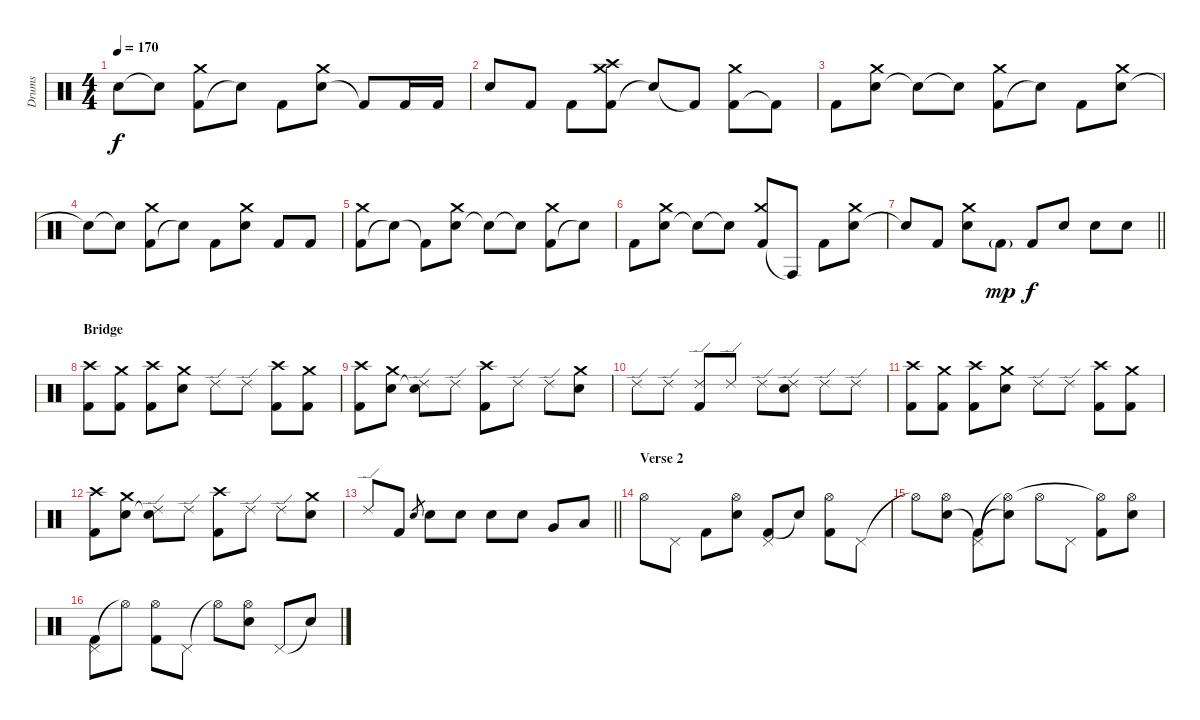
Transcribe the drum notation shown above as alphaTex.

\track ("Drums" "Drums") {instrument percussion}
\staff {score}
\articulation defaults
\ts (4 4)
\tempo 170
\clef neutral
\ks c "Snare (hit)"{t}.8{dy f} "Snare (hit)"{t}.8
("Kick (hit) 2" "Crash medium (hit)").8 "Snare (hit)"{t}.8 "Kick (hit) 2".8 ("Electric Snare (hit)" "Crash medium (hit)").8 "Kick (hit) 2"{t}.8 "Kick (hit) 2".16 "Kick (hit) 2".16 |
"Electric Snare (hit)".8 "Kick (hit) 2".8 "Kick (hit) 2".8 ("Kick (hit) 2" "Crash medium (hit)" "Crash high (hit)").8 "Snare (hit)"{t}.8 "Kick (hit) 2"{t}.8 ("Kick (hit) 2" "Crash medium (hit)").8 "Kick (hit) 2"{t}.8 |
"Kick (hit) 2".8 ("Electric Snare (hit)" "Crash medium (hit)").8 "Snare (hit)"{t}.8 "Snare (hit)"{t}.8 ("Kick (hit) 2" "Crash medium (hit)").8 "Snare (hit)"{t}.8 "Kick (hit) 2".8 ("Electric Snare (hit)" "Crash medium (hit)").8 |
"Snare (hit)"{t}.8 "Snare (hit)"{t}.8 ("Kick (hit) 2" "Crash medium (hit)").8 "Electric Snare (hit)"{t}.8 "Kick (hit) 2".8 ("Electric Snare (hit)" "Crash medium (hit)").8 "Kick (hit) 2".8 "Kick (hit) 2".8 |
("Kick (hit) 2" "Crash medium (hit)").8 "Snare (hit)"{t}.8 "Kick (hit) 2"{t}.8 ("Electric Snare (hit)" "Crash medium (hit)").8 "Snare (hit)"{t}.8 "Snare (hit)"{t}.8 ("Kick (hit) 2" "Crash medium (hit)").8 "Snare (hit)"{t}.8 |
"Kick (hit) 2".8 ("Electric Snare (hit)" "Crash medium (hit)").8 "Snare (hit)"{t}.8 "Snare (hit)"{t}.8 ("Kick (hit) 2" "Crash medium (hit)").8 "Conga high (hit)"{t}.8 "Kick (hit) 2".8 ("Electric Snare (hit)" "Crash medium (hit)").8 |
\barLineRight lightlight "Snare (hit)"{t}.8 "Kick (hit) 2".8
("Electric Snare (hit)" "Crash medium (hit)").8 "Kick (hit) 2"{g}.8{dy mp} "Kick (hit) 2".8{dy f} "Electric Snare (hit)".8 "Electric Snare (hit)".8 "Electric Snare (hit)".8 |
\section ("" "Bridge")
("Kick (hit) 2" "Crash high (hit)").8 ("Kick (hit) 2" "Crash medium (hit)").8 ("Kick (hit) 2" "Crash high (hit)").8 ("Electric Snare (hit)" "Crash medium (hit)").8 "Ride (edge) 2".8 "Ride (edge) 2".8 ("Kick (hit) 2" "Crash high (hit)").8 ("Kick (hit) 2" "Crash medium (hit)").8 |
("Kick (hit) 2" "Crash high (hit)").8 ("Electric Snare (hit)" "Crash medium (hit)").8 ("Snare (hit)"{t} "Ride (edge) 2").8 "Ride (edge) 2".8 ("Kick (hit) 2" "Crash high (hit)").8 "Ride (edge) 2".8 "Ride (edge) 2".8 ("Electric Snare (hit)" "Crash medium (hit)").8 |
"Ride (edge) 2".8 "Ride (edge) 2".8 ("Kick (hit) 2" "Ride (edge) 2").8 "Ride (edge) 2".8 "Ride (edge) 2".8 ("Electric Snare (hit)" "Ride (edge) 2").8 "Ride (edge) 2".8 "Ride (edge) 2".8 |
("Kick (hit) 2" "Crash high (hit)").8 ("Kick (hit) 2" "Crash medium (hit)").8 ("Kick (hit) 2" "Crash high (hit)").8 ("Electric Snare (hit)" "Crash medium (hit)").8 "Ride (edge) 2".8 "Ride (edge) 2".8 ("Kick (hit) 2" "Crash high (hit)").8 ("Kick (hit) 2" "Crash medium (hit)").8 |
("Kick (hit) 2" "Crash high (hit)").8 ("Electric Snare (hit)" "Crash medium (hit)").8 ("Snare (hit)"{t} "Ride (edge) 2").8 "Ride (edge) 2".8 ("Kick (hit) 2" "Crash high (hit)").8 "Ride (edge) 2".8 "Ride (edge) 2".8 ("Electric Snare (hit)" "Crash medium (hit)").8 |
\barLineRight lightlight "Ride (edge) 2".8 "Kick (hit) 2".8 "Electric Snare (hit)".8{gr} "Electric Snare (hit)".8 "Electric Snare (hit)".8 "Electric Snare (hit)".8 "Electric Snare (hit)".8 "Very Low Tom (hit)".8 "Low Floor Tom (hit)".8
|
\section ("" "Verse 2")
"Hi-Hat (open)".8 "Pedal Hi-Hat (hit)".8 "Kick (hit) 2".8 ("Electric Snare (hit)" "Hi-Hat (open)").8 ("Kick (hit) 2" "Pedal Hi-Hat (hit)").8 "Snare (hit)"{t}.8 ("Kick (hit) 2" "Hi-Hat (open)").8 "Pedal Hi-Hat (hit)".8 |
"Hi-Hat (open)"{t}.8 ("Electric Snare (hit)" "Hi-Hat (open)").8 ("Kick (hit) 2"{t} "Pedal Hi-Hat (hit)").8 ("Electric Snare (hit)"{t} "Hi-Hat (open)"{t}).8 "Hi-Hat (open)".8 "Pedal Hi-Hat (hit)".8 ("Kick (hit) 2" "Hi-Hat (open)"{t}).8 ("Electric Snare (hit)" "Hi-Hat (open)").8 |
("Kick (hit) 2" "Pedal Hi-Hat (hit)").8 "Hi-Hat (open)"{t}.8 ("Kick (hit) 2" "Hi-Hat (open)").8 "Pedal Hi-Hat (hit)".8 "Hi-Hat (open)"{t}.8 ("Electric Snare (hit)" "Hi-Hat (open)").8 "Pedal Hi-Hat (hit)".8 "Snare (hit)"{t}.8
